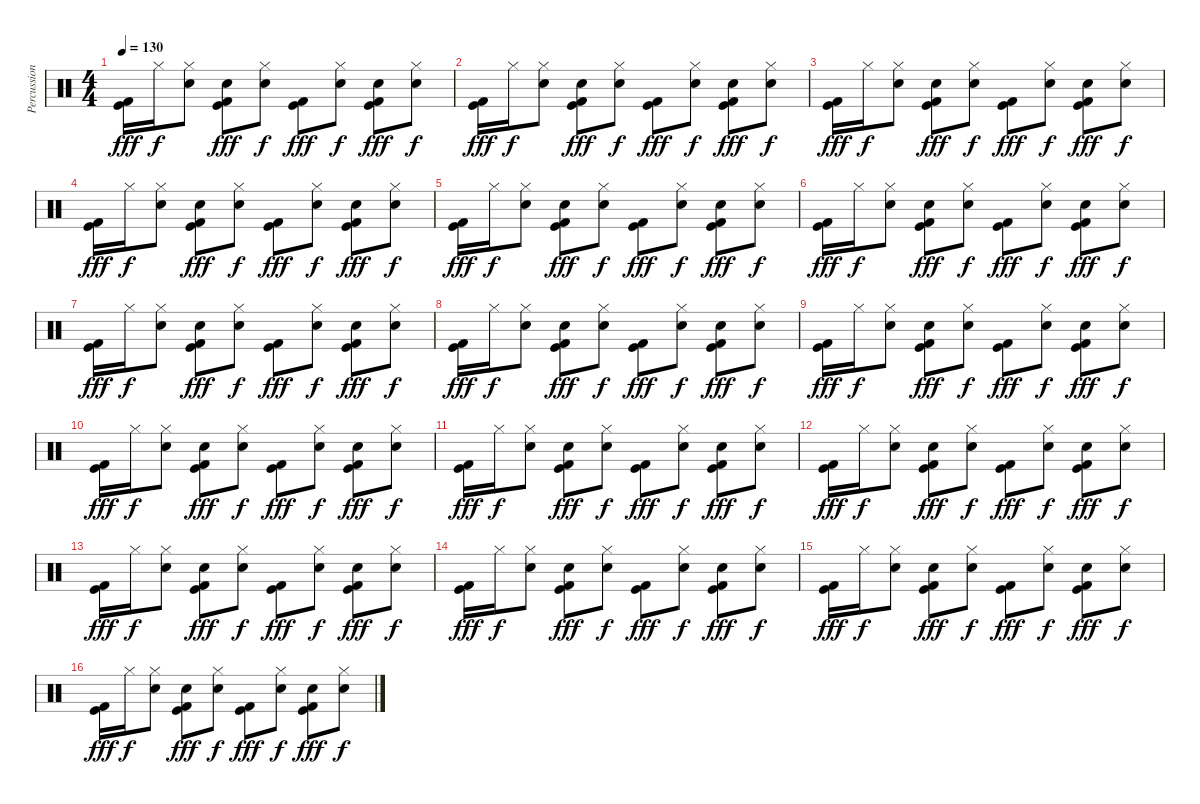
\track ("Percussions" "Percussion") {instrument percussion}
\staff {score}
\articulation defaults
\ts (4 4)
\tempo 130
\clef neutral
\ks c
("Kick (hit)" "Kick (hit) 2").16{dy fff} "Hi-Hat (closed)".16{dy f} ("Hi-Hat (closed)" "Hand Clap (hit)").8 ("Electric Snare (hit)" "Kick (hit)" "Kick (hit) 2").8{dy fff} ("Hi-Hat (closed)" "Hand Clap (hit)").8{dy f} ("Kick (hit)" "Kick (hit) 2").8{dy fff} ("Hi-Hat (closed)" "Hand Clap (hit)").8{dy f} ("Electric Snare (hit)" "Kick (hit)" "Kick (hit) 2").8{dy fff} ("Hi-Hat (closed)" "Hand Clap (hit)").8{dy f} |
("Kick (hit)" "Kick (hit) 2").16{dy fff} "Hi-Hat (closed)".16{dy f} ("Hi-Hat (closed)" "Hand Clap (hit)").8 ("Electric Snare (hit)" "Kick (hit)" "Kick (hit) 2").8{dy fff} ("Hi-Hat (closed)" "Hand Clap (hit)").8{dy f} ("Kick (hit)" "Kick (hit) 2").8{dy fff} ("Hi-Hat (closed)" "Hand Clap (hit)").8{dy f} ("Electric Snare (hit)" "Kick (hit)" "Kick (hit) 2").8{dy fff} ("Hi-Hat (closed)" "Hand Clap (hit)").8{dy f} |
("Kick (hit)" "Kick (hit) 2").16{dy fff} "Hi-Hat (closed)".16{dy f} ("Hi-Hat (closed)" "Hand Clap (hit)").8 ("Electric Snare (hit)" "Kick (hit)" "Kick (hit) 2").8{dy fff} ("Hi-Hat (closed)" "Hand Clap (hit)").8{dy f} ("Kick (hit)" "Kick (hit) 2").8{dy fff} ("Hi-Hat (closed)" "Hand Clap (hit)").8{dy f} ("Electric Snare (hit)" "Kick (hit)" "Kick (hit) 2").8{dy fff} ("Hi-Hat (closed)" "Hand Clap (hit)").8{dy f} |
("Kick (hit)" "Kick (hit) 2").16{dy fff} "Hi-Hat (closed)".16{dy f} ("Hi-Hat (closed)" "Hand Clap (hit)").8 ("Electric Snare (hit)" "Kick (hit)" "Kick (hit) 2").8{dy fff} ("Hi-Hat (closed)" "Hand Clap (hit)").8{dy f} ("Kick (hit)" "Kick (hit) 2").8{dy fff} ("Hi-Hat (closed)" "Hand Clap (hit)").8{dy f} ("Electric Snare (hit)" "Kick (hit)" "Kick (hit) 2").8{dy fff} ("Hi-Hat (closed)" "Hand Clap (hit)").8{dy f} |
("Kick (hit)" "Kick (hit) 2").16{dy fff} "Hi-Hat (closed)".16{dy f} ("Hi-Hat (closed)" "Hand Clap (hit)").8 ("Electric Snare (hit)" "Kick (hit)" "Kick (hit) 2").8{dy fff} ("Hi-Hat (closed)" "Hand Clap (hit)").8{dy f} ("Kick (hit)" "Kick (hit) 2").8{dy fff} ("Hi-Hat (closed)" "Hand Clap (hit)").8{dy f} ("Electric Snare (hit)" "Kick (hit)" "Kick (hit) 2").8{dy fff} ("Hi-Hat (closed)" "Hand Clap (hit)").8{dy f} |
("Kick (hit)" "Kick (hit) 2").16{dy fff} "Hi-Hat (closed)".16{dy f} ("Hi-Hat (closed)" "Hand Clap (hit)").8 ("Electric Snare (hit)" "Kick (hit)" "Kick (hit) 2").8{dy fff} ("Hi-Hat (closed)" "Hand Clap (hit)").8{dy f} ("Kick (hit)" "Kick (hit) 2").8{dy fff} ("Hi-Hat (closed)" "Hand Clap (hit)").8{dy f} ("Electric Snare (hit)" "Kick (hit)" "Kick (hit) 2").8{dy fff} ("Hi-Hat (closed)" "Hand Clap (hit)").8{dy f} |
("Kick (hit)" "Kick (hit) 2").16{dy fff} "Hi-Hat (closed)".16{dy f} ("Hi-Hat (closed)" "Hand Clap (hit)").8 ("Electric Snare (hit)" "Kick (hit)" "Kick (hit) 2").8{dy fff} ("Hi-Hat (closed)" "Hand Clap (hit)").8{dy f} ("Kick (hit)" "Kick (hit) 2").8{dy fff} ("Hi-Hat (closed)" "Hand Clap (hit)").8{dy f} ("Electric Snare (hit)" "Kick (hit)" "Kick (hit) 2").8{dy fff} ("Hi-Hat (closed)" "Hand Clap (hit)").8{dy f} |
("Kick (hit)" "Kick (hit) 2").16{dy fff} "Hi-Hat (closed)".16{dy f} ("Hi-Hat (closed)" "Hand Clap (hit)").8 ("Electric Snare (hit)" "Kick (hit)" "Kick (hit) 2").8{dy fff} ("Hi-Hat (closed)" "Hand Clap (hit)").8{dy f} ("Kick (hit)" "Kick (hit) 2").8{dy fff} ("Hi-Hat (closed)" "Hand Clap (hit)").8{dy f} ("Electric Snare (hit)" "Kick (hit)" "Kick (hit) 2").8{dy fff} ("Hi-Hat (closed)" "Hand Clap (hit)").8{dy f} |
("Kick (hit)" "Kick (hit) 2").16{dy fff} "Hi-Hat (closed)".16{dy f} ("Hi-Hat (closed)" "Hand Clap (hit)").8 ("Electric Snare (hit)" "Kick (hit)" "Kick (hit) 2").8{dy fff} ("Hi-Hat (closed)" "Hand Clap (hit)").8{dy f} ("Kick (hit)" "Kick (hit) 2").8{dy fff} ("Hi-Hat (closed)" "Hand Clap (hit)").8{dy f} ("Electric Snare (hit)" "Kick (hit)" "Kick (hit) 2").8{dy fff} ("Hi-Hat (closed)" "Hand Clap (hit)").8{dy f} |
("Kick (hit)" "Kick (hit) 2").16{dy fff} "Hi-Hat (closed)".16{dy f} ("Hi-Hat (closed)" "Hand Clap (hit)").8 ("Electric Snare (hit)" "Kick (hit)" "Kick (hit) 2").8{dy fff} ("Hi-Hat (closed)" "Hand Clap (hit)").8{dy f} ("Kick (hit)" "Kick (hit) 2").8{dy fff} ("Hi-Hat (closed)" "Hand Clap (hit)").8{dy f} ("Electric Snare (hit)" "Kick (hit)" "Kick (hit) 2").8{dy fff} ("Hi-Hat (closed)" "Hand Clap (hit)").8{dy f} |
("Kick (hit)" "Kick (hit) 2").16{dy fff} "Hi-Hat (closed)".16{dy f} ("Hi-Hat (closed)" "Hand Clap (hit)").8 ("Electric Snare (hit)" "Kick (hit)" "Kick (hit) 2").8{dy fff} ("Hi-Hat (closed)" "Hand Clap (hit)").8{dy f} ("Kick (hit)" "Kick (hit) 2").8{dy fff} ("Hi-Hat (closed)" "Hand Clap (hit)").8{dy f} ("Electric Snare (hit)" "Kick (hit)" "Kick (hit) 2").8{dy fff} ("Hi-Hat (closed)" "Hand Clap (hit)").8{dy f} |
("Kick (hit)" "Kick (hit) 2").16{dy fff} "Hi-Hat (closed)".16{dy f} ("Hi-Hat (closed)" "Hand Clap (hit)").8 ("Electric Snare (hit)" "Kick (hit)" "Kick (hit) 2").8{dy fff} ("Hi-Hat (closed)" "Hand Clap (hit)").8{dy f} ("Kick (hit)" "Kick (hit) 2").8{dy fff} ("Hi-Hat (closed)" "Hand Clap (hit)").8{dy f} ("Electric Snare (hit)" "Kick (hit)" "Kick (hit) 2").8{dy fff} ("Hi-Hat (closed)" "Hand Clap (hit)").8{dy f} |
("Kick (hit)" "Kick (hit) 2").16{dy fff} "Hi-Hat (closed)".16{dy f} ("Hi-Hat (closed)" "Hand Clap (hit)").8 ("Electric Snare (hit)" "Kick (hit)" "Kick (hit) 2").8{dy fff} ("Hi-Hat (closed)" "Hand Clap (hit)").8{dy f} ("Kick (hit)" "Kick (hit) 2").8{dy fff} ("Hi-Hat (closed)" "Hand Clap (hit)").8{dy f} ("Electric Snare (hit)" "Kick (hit)" "Kick (hit) 2").8{dy fff} ("Hi-Hat (closed)" "Hand Clap (hit)").8{dy f} |
("Kick (hit)" "Kick (hit) 2").16{dy fff} "Hi-Hat (closed)".16{dy f} ("Hi-Hat (closed)" "Hand Clap (hit)").8 ("Electric Snare (hit)" "Kick (hit)" "Kick (hit) 2").8{dy fff} ("Hi-Hat (closed)" "Hand Clap (hit)").8{dy f} ("Kick (hit)" "Kick (hit) 2").8{dy fff} ("Hi-Hat (closed)" "Hand Clap (hit)").8{dy f} ("Electric Snare (hit)" "Kick (hit)" "Kick (hit) 2").8{dy fff} ("Hi-Hat (closed)" "Hand Clap (hit)").8{dy f} |
("Kick (hit)" "Kick (hit) 2").16{dy fff} "Hi-Hat (closed)".16{dy f} ("Hi-Hat (closed)" "Hand Clap (hit)").8 ("Electric Snare (hit)" "Kick (hit)" "Kick (hit) 2").8{dy fff} ("Hi-Hat (closed)" "Hand Clap (hit)").8{dy f} ("Kick (hit)" "Kick (hit) 2").8{dy fff} ("Hi-Hat (closed)" "Hand Clap (hit)").8{dy f} ("Electric Snare (hit)" "Kick (hit)" "Kick (hit) 2").8{dy fff} ("Hi-Hat (closed)" "Hand Clap (hit)").8{dy f} |
("Kick (hit)" "Kick (hit) 2").16{dy fff} "Hi-Hat (closed)".16{dy f} ("Hi-Hat (closed)" "Hand Clap (hit)").8 ("Electric Snare (hit)" "Kick (hit)" "Kick (hit) 2").8{dy fff} ("Hi-Hat (closed)" "Hand Clap (hit)").8{dy f} ("Kick (hit)" "Kick (hit) 2").8{dy fff} ("Hi-Hat (closed)" "Hand Clap (hit)").8{dy f} ("Electric Snare (hit)" "Kick (hit)" "Kick (hit) 2").8{dy fff} ("Hi-Hat (closed)" "Hand Clap (hit)").8{dy f}
